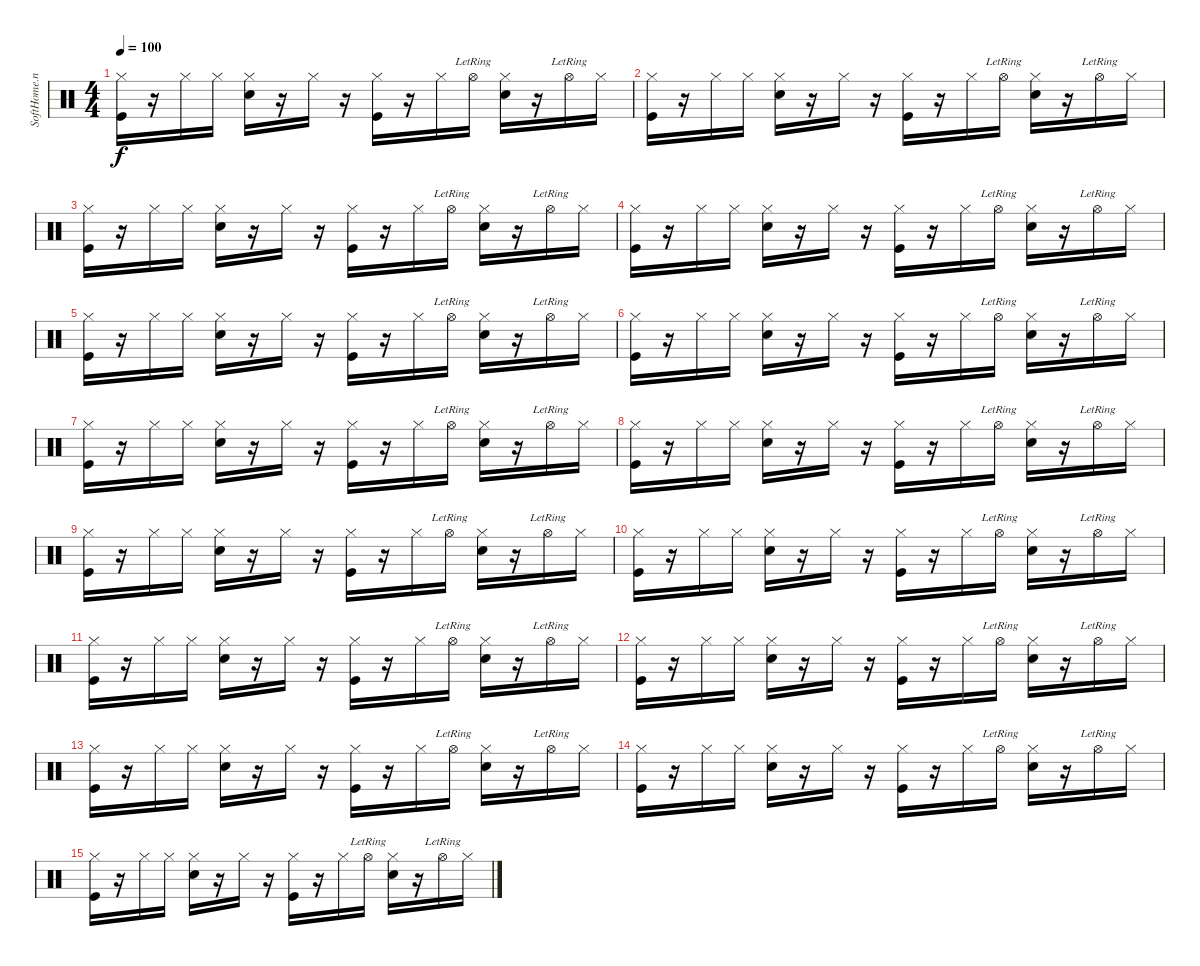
\track ("SoftHome.net" "SoftHome.n") {instrument percussion}
\staff {score}
\articulation defaults
\ts (4 4)
\tempo 100
\clef neutral
\ks c
("Hi-Hat (closed)" "Kick (hit)").16{dy f} r.16 "Hi-Hat (closed)".16 "Hi-Hat (closed)".16 ("Hi-Hat (closed)" "Snare (hit) 2").16 r.16 "Hi-Hat (closed)".16 r.16 ("Hi-Hat (closed)" "Kick (hit)").16 r.16 "Hi-Hat (closed)".16 "Hi-Hat (open)"{lr}.16 ("Hi-Hat (closed)" "Snare (hit) 2").16 r.16 "Hi-Hat (open)"{lr}.16 "Hi-Hat (closed)".16 |
("Hi-Hat (closed)" "Kick (hit)").16 r.16 "Hi-Hat (closed)".16 "Hi-Hat (closed)".16 ("Hi-Hat (closed)" "Snare (hit) 2").16 r.16 "Hi-Hat (closed)".16 r.16 ("Hi-Hat (closed)" "Kick (hit)").16 r.16 "Hi-Hat (closed)".16 "Hi-Hat (open)"{lr}.16 ("Hi-Hat (closed)" "Snare (hit) 2").16 r.16 "Hi-Hat (open)"{lr}.16 "Hi-Hat (closed)".16 |
("Hi-Hat (closed)" "Kick (hit)").16 r.16 "Hi-Hat (closed)".16 "Hi-Hat (closed)".16 ("Hi-Hat (closed)" "Snare (hit) 2").16 r.16 "Hi-Hat (closed)".16 r.16 ("Hi-Hat (closed)" "Kick (hit)").16 r.16 "Hi-Hat (closed)".16 "Hi-Hat (open)"{lr}.16 ("Hi-Hat (closed)" "Snare (hit) 2").16 r.16 "Hi-Hat (open)"{lr}.16 "Hi-Hat (closed)".16 |
("Hi-Hat (closed)" "Kick (hit)").16 r.16 "Hi-Hat (closed)".16 "Hi-Hat (closed)".16 ("Hi-Hat (closed)" "Snare (hit) 2").16 r.16 "Hi-Hat (closed)".16 r.16 ("Hi-Hat (closed)" "Kick (hit)").16 r.16 "Hi-Hat (closed)".16 "Hi-Hat (open)"{lr}.16 ("Hi-Hat (closed)" "Snare (hit) 2").16 r.16 "Hi-Hat (open)"{lr}.16 "Hi-Hat (closed)".16 |
("Hi-Hat (closed)" "Kick (hit)").16 r.16 "Hi-Hat (closed)".16 "Hi-Hat (closed)".16 ("Hi-Hat (closed)" "Snare (hit) 2").16 r.16 "Hi-Hat (closed)".16 r.16 ("Hi-Hat (closed)" "Kick (hit)").16 r.16 "Hi-Hat (closed)".16 "Hi-Hat (open)"{lr}.16 ("Hi-Hat (closed)" "Snare (hit) 2").16 r.16 "Hi-Hat (open)"{lr}.16 "Hi-Hat (closed)".16 |
("Hi-Hat (closed)" "Kick (hit)").16 r.16 "Hi-Hat (closed)".16 "Hi-Hat (closed)".16 ("Hi-Hat (closed)" "Snare (hit) 2").16 r.16 "Hi-Hat (closed)".16 r.16 ("Hi-Hat (closed)" "Kick (hit)").16 r.16 "Hi-Hat (closed)".16 "Hi-Hat (open)"{lr}.16 ("Hi-Hat (closed)" "Snare (hit) 2").16 r.16 "Hi-Hat (open)"{lr}.16 "Hi-Hat (closed)".16 |
("Hi-Hat (closed)" "Kick (hit)").16 r.16 "Hi-Hat (closed)".16 "Hi-Hat (closed)".16 ("Hi-Hat (closed)" "Snare (hit) 2").16 r.16 "Hi-Hat (closed)".16 r.16 ("Hi-Hat (closed)" "Kick (hit)").16 r.16 "Hi-Hat (closed)".16 "Hi-Hat (open)"{lr}.16 ("Hi-Hat (closed)" "Snare (hit) 2").16 r.16 "Hi-Hat (open)"{lr}.16 "Hi-Hat (closed)".16 |
("Hi-Hat (closed)" "Kick (hit)").16{volume 11} r.16 "Hi-Hat (closed)".16 "Hi-Hat (closed)".16 ("Hi-Hat (closed)" "Snare (hit) 2").16 r.16 "Hi-Hat (closed)".16 r.16 ("Hi-Hat (closed)" "Kick (hit)").16 r.16 "Hi-Hat (closed)".16 "Hi-Hat (open)"{lr}.16 ("Hi-Hat (closed)" "Snare (hit) 2").16 r.16 "Hi-Hat (open)"{lr}.16 "Hi-Hat (closed)".16 |
("Hi-Hat (closed)" "Kick (hit)").16{volume 10} r.16 "Hi-Hat (closed)".16 "Hi-Hat (closed)".16 ("Hi-Hat (closed)" "Snare (hit) 2").16 r.16 "Hi-Hat (closed)".16 r.16 ("Hi-Hat (closed)" "Kick (hit)").16 r.16 "Hi-Hat (closed)".16 "Hi-Hat (open)"{lr}.16 ("Hi-Hat (closed)" "Snare (hit) 2").16 r.16 "Hi-Hat (open)"{lr}.16 "Hi-Hat (closed)".16 |
("Hi-Hat (closed)" "Kick (hit)").16{volume 8} r.16 "Hi-Hat (closed)".16 "Hi-Hat (closed)".16 ("Hi-Hat (closed)" "Snare (hit) 2").16 r.16 "Hi-Hat (closed)".16 r.16 ("Hi-Hat (closed)" "Kick (hit)").16 r.16 "Hi-Hat (closed)".16 "Hi-Hat (open)"{lr}.16 ("Hi-Hat (closed)" "Snare (hit) 2").16 r.16 "Hi-Hat (open)"{lr}.16 "Hi-Hat (closed)".16 |
("Hi-Hat (closed)" "Kick (hit)").16{volume 6} r.16 "Hi-Hat (closed)".16 "Hi-Hat (closed)".16 ("Hi-Hat (closed)" "Snare (hit) 2").16 r.16 "Hi-Hat (closed)".16 r.16 ("Hi-Hat (closed)" "Kick (hit)").16 r.16 "Hi-Hat (closed)".16 "Hi-Hat (open)"{lr}.16 ("Hi-Hat (closed)" "Snare (hit) 2").16 r.16 "Hi-Hat (open)"{lr}.16 "Hi-Hat (closed)".16 |
("Hi-Hat (closed)" "Kick (hit)").16{volume 5} r.16 "Hi-Hat (closed)".16 "Hi-Hat (closed)".16 ("Hi-Hat (closed)" "Snare (hit) 2").16 r.16 "Hi-Hat (closed)".16 r.16 ("Hi-Hat (closed)" "Kick (hit)").16 r.16 "Hi-Hat (closed)".16 "Hi-Hat (open)"{lr}.16 ("Hi-Hat (closed)" "Snare (hit) 2").16 r.16 "Hi-Hat (open)"{lr}.16 "Hi-Hat (closed)".16 |
("Hi-Hat (closed)" "Kick (hit)").16{volume 3} r.16 "Hi-Hat (closed)".16 "Hi-Hat (closed)".16 ("Hi-Hat (closed)" "Snare (hit) 2").16 r.16 "Hi-Hat (closed)".16 r.16 ("Hi-Hat (closed)" "Kick (hit)").16 r.16 "Hi-Hat (closed)".16 "Hi-Hat (open)"{lr}.16 ("Hi-Hat (closed)" "Snare (hit) 2").16 r.16 "Hi-Hat (open)"{lr}.16 "Hi-Hat (closed)".16 |
("Hi-Hat (closed)" "Kick (hit)").16{volume 2} r.16 "Hi-Hat (closed)".16 "Hi-Hat (closed)".16 ("Hi-Hat (closed)" "Snare (hit) 2").16 r.16 "Hi-Hat (closed)".16 r.16 ("Hi-Hat (closed)" "Kick (hit)").16 r.16 "Hi-Hat (closed)".16 "Hi-Hat (open)"{lr}.16 ("Hi-Hat (closed)" "Snare (hit) 2").16 r.16 "Hi-Hat (open)"{lr}.16 "Hi-Hat (closed)".16 |
("Hi-Hat (closed)" "Kick (hit)").16 r.16 "Hi-Hat (closed)".16 "Hi-Hat (closed)".16 ("Hi-Hat (closed)" "Snare (hit) 2").16 r.16 "Hi-Hat (closed)".16 r.16 ("Hi-Hat (closed)" "Kick (hit)").16 r.16 "Hi-Hat (closed)".16 "Hi-Hat (open)"{lr}.16 ("Hi-Hat (closed)" "Snare (hit) 2").16 r.16 "Hi-Hat (open)"{lr}.16 "Hi-Hat (closed)".16
